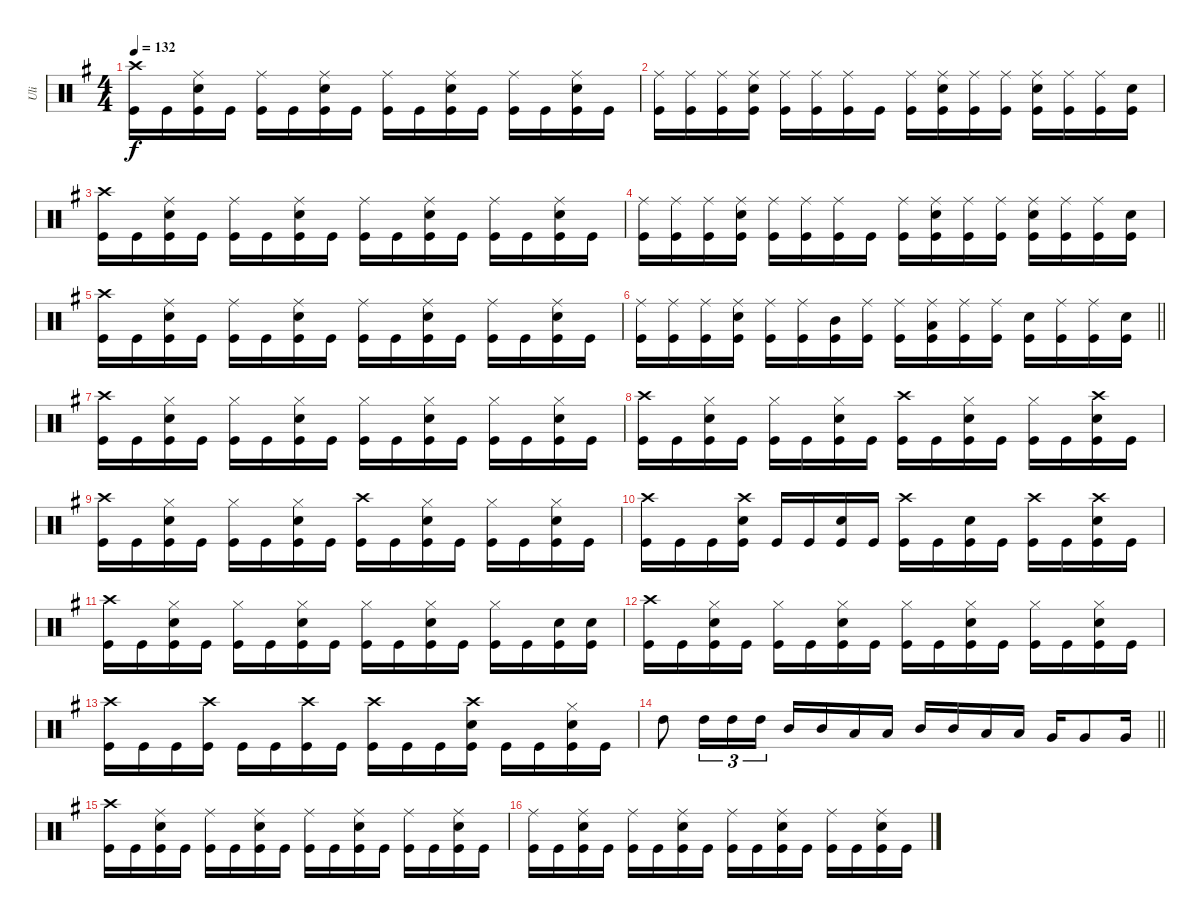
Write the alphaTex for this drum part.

\track ("Uli" "Uli") {instrument percussion}
\staff {score}
\articulation defaults
\ts (4 4)
\tempo 132
\clef neutral
\ks eminor
("Crash high (hit)" "Kick (hit)").16{dy f} "Kick (hit)".16 ("Ride (middle)" "Snare (hit) 2" "Kick (hit)").16 "Kick (hit)".16 ("Ride (middle)" "Kick (hit)").16 "Kick (hit)".16 ("Ride (middle)" "Snare (hit) 2" "Kick (hit)").16 "Kick (hit)".16 ("Ride (middle)" "Kick (hit)").16 "Kick (hit)".16 ("Ride (middle)" "Snare (hit) 2" "Kick (hit)").16 "Kick (hit)".16 ("Ride (middle)" "Kick (hit)").16 "Kick (hit)".16 ("Ride (middle)" "Snare (hit) 2" "Kick (hit)").16 "Kick (hit)".16 |
("Ride (middle)" "Kick (hit)").16 ("Ride (middle)" "Kick (hit)").16 ("Ride (middle)" "Kick (hit)").16 ("Ride (middle)" "Snare (hit) 2" "Kick (hit)").16 ("Ride (middle)" "Kick (hit)").16 ("Ride (middle)" "Kick (hit)").16 ("Ride (middle)" "Kick (hit)").16 "Kick (hit)".16 ("Ride (middle)" "Kick (hit)").16 ("Ride (middle)" "Snare (hit) 2" "Kick (hit)").16 ("Ride (middle)" "Kick (hit)").16 ("Ride (middle)" "Kick (hit)").16 ("Ride (middle)" "Snare (hit) 2" "Kick (hit)").16 ("Ride (middle)" "Kick (hit)").16 ("Ride (middle)" "Kick (hit)").16 ("Snare (hit) 2" "Kick (hit)").16 |
("Crash high (hit)" "Kick (hit)").16 "Kick (hit)".16 ("Ride (middle)" "Snare (hit) 2" "Kick (hit)").16 "Kick (hit)".16 ("Ride (middle)" "Kick (hit)").16 "Kick (hit)".16 ("Ride (middle)" "Snare (hit) 2" "Kick (hit)").16 "Kick (hit)".16 ("Ride (middle)" "Kick (hit)").16 "Kick (hit)".16 ("Ride (middle)" "Snare (hit) 2" "Kick (hit)").16 "Kick (hit)".16 ("Ride (middle)" "Kick (hit)").16 "Kick (hit)".16 ("Ride (middle)" "Snare (hit) 2" "Kick (hit)").16 "Kick (hit)".16 |
("Ride (middle)" "Kick (hit)").16 ("Ride (middle)" "Kick (hit)").16 ("Ride (middle)" "Kick (hit)").16 ("Ride (middle)" "Snare (hit) 2" "Kick (hit)").16 ("Ride (middle)" "Kick (hit)").16 ("Ride (middle)" "Kick (hit)").16 ("Ride (middle)" "Kick (hit)").16 "Kick (hit)".16 ("Ride (middle)" "Kick (hit)").16 ("Ride (middle)" "Snare (hit) 2" "Kick (hit)").16 ("Ride (middle)" "Kick (hit)").16 ("Ride (middle)" "Kick (hit)").16 ("Ride (middle)" "Snare (hit) 2" "Kick (hit)").16 ("Ride (middle)" "Kick (hit)").16 ("Ride (middle)" "Kick (hit)").16 ("Snare (hit) 2" "Kick (hit)").16 |
("Crash high (hit)" "Kick (hit)").16 "Kick (hit)".16 ("Ride (middle)" "Snare (hit) 2" "Kick (hit)").16 "Kick (hit)".16 ("Ride (middle)" "Kick (hit)").16 "Kick (hit)".16 ("Ride (middle)" "Snare (hit) 2" "Kick (hit)").16 "Kick (hit)".16 ("Ride (middle)" "Kick (hit)").16 "Kick (hit)".16 ("Ride (middle)" "Snare (hit) 2" "Kick (hit)").16 "Kick (hit)".16 ("Ride (middle)" "Kick (hit)").16 "Kick (hit)".16 ("Ride (middle)" "Snare (hit) 2" "Kick (hit)").16 "Kick (hit)".16 |
\barLineRight lightlight
("Ride (middle)" "Kick (hit)").16 ("Ride (middle)" "Kick (hit)").16 ("Ride (middle)" "Kick (hit)").16 ("Ride (middle)" "Snare (hit) 2" "Kick (hit)").16 ("Ride (middle)" "Kick (hit)").16 ("Ride (middle)" "Kick (hit)").16 ("Mid Tom (hit)" "Kick (hit)").16 ("Ride (middle)" "Kick (hit)").16 ("Ride (middle)" "Kick (hit)").16 ("Ride (middle)" "Low Tom (hit)" "Kick (hit)").16 ("Ride (middle)" "Kick (hit)").16 ("Ride (middle)" "Kick (hit)").16 ("Snare (hit) 2" "Kick (hit)").16 ("Ride (middle)" "Kick (hit)").16 ("Ride (middle)" "Kick (hit)").16 ("Snare (hit) 2" "Kick (hit)").16 |
("Crash high (hit)" "Kick (hit)").16 "Kick (hit)".16 ("Hi-Hat (closed)" "Snare (hit) 2" "Kick (hit)").16 "Kick (hit)".16 ("Hi-Hat (closed)" "Kick (hit)").16 "Kick (hit)".16 ("Hi-Hat (closed)" "Snare (hit) 2" "Kick (hit)").16 "Kick (hit)".16 ("Hi-Hat (closed)" "Kick (hit)").16 "Kick (hit)".16 ("Hi-Hat (closed)" "Snare (hit) 2" "Kick (hit)").16 "Kick (hit)".16 ("Hi-Hat (closed)" "Kick (hit)").16 "Kick (hit)".16 ("Hi-Hat (closed)" "Snare (hit) 2" "Kick (hit)").16 "Kick (hit)".16 |
("Crash high (hit)" "Kick (hit)").16 "Kick (hit)".16 ("Hi-Hat (closed)" "Snare (hit) 2" "Kick (hit)").16 "Kick (hit)".16 ("Hi-Hat (closed)" "Kick (hit)").16 "Kick (hit)".16 ("Hi-Hat (closed)" "Snare (hit) 2" "Kick (hit)").16 "Kick (hit)".16 ("Crash high (hit)" "Kick (hit)").16 "Kick (hit)".16 ("Hi-Hat (closed)" "Snare (hit) 2" "Kick (hit)").16 "Kick (hit)".16 ("Hi-Hat (closed)" "Kick (hit)").16 "Kick (hit)".16 ("Crash high (hit)" "Snare (hit) 2" "Kick (hit)").16 "Kick (hit)".16 |
("Crash high (hit)" "Kick (hit)").16 "Kick (hit)".16 ("Hi-Hat (closed)" "Snare (hit) 2" "Kick (hit)").16 "Kick (hit)".16 ("Hi-Hat (closed)" "Kick (hit)").16 "Kick (hit)".16 ("Hi-Hat (closed)" "Snare (hit) 2" "Kick (hit)").16 "Kick (hit)".16 ("Crash high (hit)" "Kick (hit)").16 "Kick (hit)".16 ("Hi-Hat (closed)" "Snare (hit) 2" "Kick (hit)").16 "Kick (hit)".16 ("Hi-Hat (closed)" "Kick (hit)").16 "Kick (hit)".16 ("Hi-Hat (closed)" "Snare (hit) 2" "Kick (hit)").16 "Kick (hit)".16 |
("Crash high (hit)" "Kick (hit)").16 "Kick (hit)".16 "Kick (hit)".16 ("Crash high (hit)" "Snare (hit) 2" "Kick (hit)").16 "Kick (hit)".16 "Kick (hit)".16 ("Snare (hit) 2" "Kick (hit)").16 "Kick (hit)".16 ("Crash high (hit)" "Kick (hit)").16 "Kick (hit)".16 ("Snare (hit) 2" "Kick (hit)").16 "Kick (hit)".16 ("Crash high (hit)" "Kick (hit)").16 "Kick (hit)".16 ("Crash high (hit)" "Snare (hit) 2" "Kick (hit)").16 "Kick (hit)".16 |
("Crash high (hit)" "Kick (hit)").16 "Kick (hit)".16 ("Hi-Hat (closed)" "Snare (hit) 2" "Kick (hit)").16 "Kick (hit)".16 ("Hi-Hat (closed)" "Kick (hit)").16 "Kick (hit)".16 ("Hi-Hat (closed)" "Snare (hit) 2" "Kick (hit)").16 "Kick (hit)".16 ("Hi-Hat (closed)" "Kick (hit)").16 "Kick (hit)".16 ("Hi-Hat (closed)" "Snare (hit) 2" "Kick (hit)").16 "Kick (hit)".16 ("Hi-Hat (closed)" "Kick (hit)").16 "Kick (hit)".16 ("Snare (hit) 2" "Kick (hit)").16 ("Snare (hit) 2" "Kick (hit)").16 |
("Crash high (hit)" "Kick (hit)").16 "Kick (hit)".16 ("Hi-Hat (closed)" "Snare (hit) 2" "Kick (hit)").16 "Kick (hit)".16 ("Hi-Hat (closed)" "Kick (hit)").16 "Kick (hit)".16 ("Hi-Hat (closed)" "Snare (hit) 2" "Kick (hit)").16 "Kick (hit)".16 ("Hi-Hat (closed)" "Kick (hit)").16 "Kick (hit)".16 ("Hi-Hat (closed)" "Snare (hit) 2" "Kick (hit)").16 "Kick (hit)".16 ("Hi-Hat (closed)" "Kick (hit)").16 "Kick (hit)".16 ("Hi-Hat (closed)" "Snare (hit) 2" "Kick (hit)").16 "Kick (hit)".16 |
("Crash high (hit)" "Kick (hit)").16 "Kick (hit)".16 "Kick (hit)".16 ("Crash high (hit)" "Kick (hit)").16 "Kick (hit)".16 "Kick (hit)".16 ("Crash high (hit)" "Kick (hit)").16 "Kick (hit)".16 ("Crash high (hit)" "Kick (hit)").16 "Kick (hit)".16 "Kick (hit)".16 ("Crash high (hit)" "Snare (hit) 2" "Kick (hit)").16 "Kick (hit)".16 "Kick (hit)".16 ("Hi-Hat (closed)" "Snare (hit) 2" "Kick (hit)").16 "Kick (hit)".16 |
\barLineRight lightlight "High Tom (hit)".8 "High Tom (hit)".16{tu (3 2)} "High Tom (hit)".16{tu (3 2)} "High Tom (hit)".16{tu (3 2)} "Mid Tom (hit)".16 "Mid Tom (hit)".16 "Low Tom (hit)".16 "Low Tom (hit)".16 "Mid Tom (hit)".16 "Mid Tom (hit)".16 "Low Tom (hit)".16 "Low Tom (hit)".16 "Very Low Tom (hit)".16 "Very Low Tom (hit)".8 "Very Low Tom (hit)".16
|
("Crash high (hit)" "Kick (hit)").16 "Kick (hit)".16 ("Ride (middle)" "Snare (hit) 2" "Kick (hit)").16 "Kick (hit)".16 ("Ride (middle)" "Kick (hit)").16 "Kick (hit)".16 ("Ride (middle)" "Snare (hit) 2" "Kick (hit)").16 "Kick (hit)".16 ("Ride (middle)" "Kick (hit)").16 "Kick (hit)".16 ("Ride (middle)" "Snare (hit) 2" "Kick (hit)").16 "Kick (hit)".16 ("Ride (middle)" "Kick (hit)").16 "Kick (hit)".16 ("Ride (middle)" "Snare (hit) 2" "Kick (hit)").16 "Kick (hit)".16 |
("Ride (middle)" "Kick (hit)").16 "Kick (hit)".16 ("Ride (middle)" "Snare (hit) 2" "Kick (hit)").16 "Kick (hit)".16 ("Ride (middle)" "Kick (hit)").16 "Kick (hit)".16 ("Ride (middle)" "Snare (hit) 2" "Kick (hit)").16 "Kick (hit)".16 ("Ride (middle)" "Kick (hit)").16 "Kick (hit)".16 ("Ride (middle)" "Snare (hit) 2" "Kick (hit)").16 "Kick (hit)".16 ("Ride (middle)" "Kick (hit)").16 "Kick (hit)".16 ("Ride (middle)" "Snare (hit) 2" "Kick (hit)").16 "Kick (hit)".16
